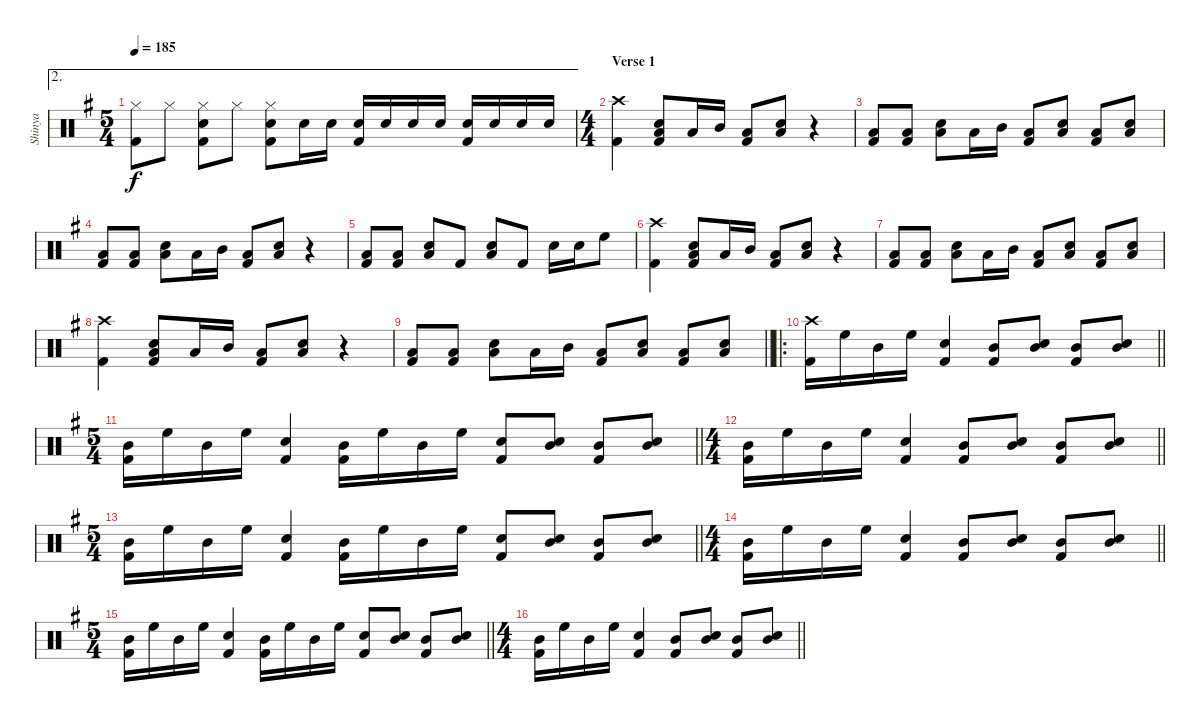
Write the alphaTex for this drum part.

\track ("Shinya" "Shinya") {instrument percussion}
\staff {score}
\articulation defaults
\ae 2
\ts (5 4)
\tempo 185
\clef neutral
\ks g
("Hi-Hat (closed)" "Kick (hit) 2").8{dy f} "Hi-Hat (closed)".8 ("Hi-Hat (closed)" "Snare (hit) 2" "Kick (hit) 2").8 "Hi-Hat (closed)".8 ("Hi-Hat (closed)" "Snare (hit) 2" "Kick (hit) 2").8 "Snare (hit) 2".16 "Snare (hit) 2".16 ("Snare (hit) 2" "Kick (hit) 2").16 "Snare (hit) 2".16 "Snare (hit) 2".16 "Snare (hit) 2".16 ("Snare (hit) 2" "Kick (hit) 2").16 "Snare (hit) 2".16 "Snare (hit) 2".16 "Snare (hit) 2".16 |
\ts (4 4)
\section ("" "Verse 1")
("Crash high (hit)" "Kick (hit) 2").4 ("Snare (hit) 2" "Low Floor Tom (hit)" "Kick (hit) 2").8 "Low Floor Tom (hit)".16 "Mid Tom (hit)".16 ("Low Floor Tom (hit)" "Kick (hit) 2").8 ("Snare (hit) 2" "Low Floor Tom (hit)").8 r.4 |
("Low Floor Tom (hit)" "Kick (hit) 2").8 ("Low Floor Tom (hit)" "Kick (hit) 2").8 ("Snare (hit) 2" "Low Floor Tom (hit)").8 "Low Floor Tom (hit)".16 "Mid Tom (hit)".16 ("Low Floor Tom (hit)" "Kick (hit) 2").8 ("Snare (hit) 2" "Low Floor Tom (hit)").8 ("Low Floor Tom (hit)" "Kick (hit) 2").8 ("Snare (hit) 2" "Low Floor Tom (hit)").8 |
("Low Floor Tom (hit)" "Kick (hit) 2").8 ("Low Floor Tom (hit)" "Kick (hit) 2").8 ("Snare (hit) 2" "Low Floor Tom (hit)").8 "Low Floor Tom (hit)".16 "Mid Tom (hit)".16 ("Low Floor Tom (hit)" "Kick (hit) 2").8 ("Snare (hit) 2" "Low Floor Tom (hit)").8 r.4 |
("Low Floor Tom (hit)" "Kick (hit) 2").8 ("Low Floor Tom (hit)" "Kick (hit) 2").8 ("Snare (hit) 2" "Low Floor Tom (hit)").8 "Kick (hit) 2".8 ("Snare (hit) 2" "Low Floor Tom (hit)").8 "Kick (hit) 2".8 "Snare (hit) 2".16 "Snare (hit) 2".16 "High Floor Tom (hit)".8 |
("Crash high (hit)" "Kick (hit) 2").4 ("Snare (hit) 2" "Low Floor Tom (hit)" "Kick (hit) 2").8 "Low Floor Tom (hit)".16 "Mid Tom (hit)".16 ("Low Floor Tom (hit)" "Kick (hit) 2").8 ("Snare (hit) 2" "Low Floor Tom (hit)").8 r.4 |
("Low Floor Tom (hit)" "Kick (hit) 2").8 ("Low Floor Tom (hit)" "Kick (hit) 2").8 ("Snare (hit) 2" "Low Floor Tom (hit)").8 "Low Floor Tom (hit)".16 "Mid Tom (hit)".16 ("Low Floor Tom (hit)" "Kick (hit) 2").8 ("Snare (hit) 2" "Low Floor Tom (hit)").8 ("Low Floor Tom (hit)" "Kick (hit) 2").8 ("Snare (hit) 2" "Low Floor Tom (hit)").8 |
("Crash high (hit)" "Kick (hit) 2").4 ("Snare (hit) 2" "Low Floor Tom (hit)" "Kick (hit) 2").8 "Low Floor Tom (hit)".16 "Mid Tom (hit)".16 ("Low Floor Tom (hit)" "Kick (hit) 2").8 ("Snare (hit) 2" "Low Floor Tom (hit)").8 r.4 |
\barLineRight lightlight
("Low Floor Tom (hit)" "Kick (hit) 2").8 ("Low Floor Tom (hit)" "Kick (hit) 2").8 ("Snare (hit) 2" "Low Floor Tom (hit)").8 "Low Floor Tom (hit)".16 "Mid Tom (hit)".16 ("Low Floor Tom (hit)" "Kick (hit) 2").8 ("Snare (hit) 2" "Low Floor Tom (hit)").8 ("Low Floor Tom (hit)" "Kick (hit) 2").8 ("Snare (hit) 2" "Low Floor Tom (hit)").8 |
\ro
\barLineRight lightlight
("Crash high (hit)" "Kick (hit) 2").16 "High Floor Tom (hit)".16 "Mid Tom (hit)".16 "High Floor Tom (hit)".16 ("Snare (hit) 2" "Kick (hit) 2").4 ("Mid Tom (hit)" "Kick (hit) 2").8 ("Mid Tom (hit)" "Snare (hit) 2").8 ("Mid Tom (hit)" "Kick (hit) 2").8 ("Mid Tom (hit)" "Snare (hit) 2").8 |
\ts (5 4)
\barLineRight lightlight
("Mid Tom (hit)" "Kick (hit) 2").16 "High Floor Tom (hit)".16 "Mid Tom (hit)".16 "High Floor Tom (hit)".16 ("Snare (hit) 2" "Kick (hit) 2").4 ("Mid Tom (hit)" "Kick (hit) 2").16 "High Floor Tom (hit)".16 "Mid Tom (hit)".16 "High Floor Tom (hit)".16 ("Snare (hit) 2" "Kick (hit) 2").8 ("Mid Tom (hit)" "Snare (hit) 2").8 ("Mid Tom (hit)" "Kick (hit) 2").8 ("Mid Tom (hit)" "Snare (hit) 2").8 |
\ts (4 4)
\barLineRight lightlight
("Mid Tom (hit)" "Kick (hit) 2").16 "High Floor Tom (hit)".16 "Mid Tom (hit)".16 "High Floor Tom (hit)".16 ("Snare (hit) 2" "Kick (hit) 2").4 ("Mid Tom (hit)" "Kick (hit) 2").8 ("Mid Tom (hit)" "Snare (hit) 2").8 ("Mid Tom (hit)" "Kick (hit) 2").8 ("Mid Tom (hit)" "Snare (hit) 2").8 |
\ts (5 4)
\barLineRight lightlight
("Mid Tom (hit)" "Kick (hit) 2").16 "High Floor Tom (hit)".16 "Mid Tom (hit)".16 "High Floor Tom (hit)".16 ("Snare (hit) 2" "Kick (hit) 2").4 ("Mid Tom (hit)" "Kick (hit) 2").16 "High Floor Tom (hit)".16 "Mid Tom (hit)".16 "High Floor Tom (hit)".16 ("Snare (hit) 2" "Kick (hit) 2").8 ("Mid Tom (hit)" "Snare (hit) 2").8 ("Mid Tom (hit)" "Kick (hit) 2").8 ("Mid Tom (hit)" "Snare (hit) 2").8 |
\ts (4 4)
\barLineRight lightlight
("Mid Tom (hit)" "Kick (hit) 2").16 "High Floor Tom (hit)".16 "Mid Tom (hit)".16 "High Floor Tom (hit)".16 ("Snare (hit) 2" "Kick (hit) 2").4 ("Mid Tom (hit)" "Kick (hit) 2").8 ("Mid Tom (hit)" "Snare (hit) 2").8 ("Mid Tom (hit)" "Kick (hit) 2").8 ("Mid Tom (hit)" "Snare (hit) 2").8 |
\ts (5 4)
\barLineRight lightlight
("Mid Tom (hit)" "Kick (hit) 2").16 "High Floor Tom (hit)".16 "Mid Tom (hit)".16 "High Floor Tom (hit)".16 ("Snare (hit) 2" "Kick (hit) 2").4 ("Mid Tom (hit)" "Kick (hit) 2").16 "High Floor Tom (hit)".16 "Mid Tom (hit)".16 "High Floor Tom (hit)".16 ("Snare (hit) 2" "Kick (hit) 2").8 ("Mid Tom (hit)" "Snare (hit) 2").8 ("Mid Tom (hit)" "Kick (hit) 2").8 ("Mid Tom (hit)" "Snare (hit) 2").8 |
\ts (4 4)
\barLineRight lightlight
("Mid Tom (hit)" "Kick (hit) 2").16 "High Floor Tom (hit)".16 "Mid Tom (hit)".16 "High Floor Tom (hit)".16 ("Snare (hit) 2" "Kick (hit) 2").4 ("Mid Tom (hit)" "Kick (hit) 2").8 ("Mid Tom (hit)" "Snare (hit) 2").8 ("Mid Tom (hit)" "Kick (hit) 2").8 ("Mid Tom (hit)" "Snare (hit) 2").8
